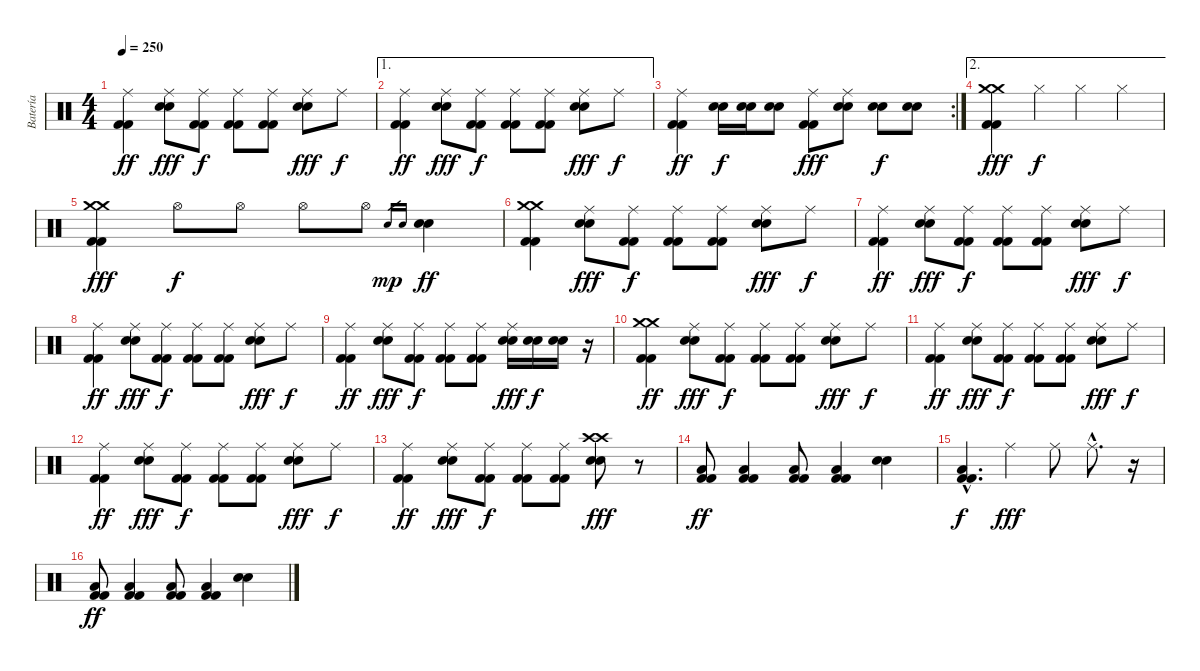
\track ("Batería" "Batería") {instrument percussion}
\staff {score}
\articulation defaults
\ts (4 4)
\tempo 250
\clef neutral
\ks c
("Ride (middle)" "Kick (hit) 2" "Kick (hit) 2").4{dy ff} ("Ride (middle)" "Electric Snare (hit)" "Electric Snare (hit)").8{dy fff} ("Ride (middle)" "Kick (hit) 2" "Kick (hit) 2").8{dy f} ("Ride (middle)" "Kick (hit) 2" "Kick (hit) 2").8 ("Ride (middle)" "Kick (hit) 2" "Kick (hit) 2").8 ("Ride (middle)" "Electric Snare (hit)" "Electric Snare (hit)").8{dy fff} "Ride (middle)".8{dy f} |
\ae 1
("Ride (middle)" "Kick (hit) 2" "Kick (hit) 2").4{dy ff} ("Ride (middle)" "Electric Snare (hit)" "Electric Snare (hit)").8{dy fff} ("Ride (middle)" "Kick (hit) 2" "Kick (hit) 2").8{dy f} ("Ride (middle)" "Kick (hit) 2" "Kick (hit) 2").8 ("Ride (middle)" "Kick (hit) 2" "Kick (hit) 2").8 ("Ride (middle)" "Electric Snare (hit)" "Electric Snare (hit)").8{dy fff} "Ride (middle)".8{dy f} |
\rc 2
("Ride (middle)" "Kick (hit) 2" "Kick (hit) 2").4{dy ff} ("Electric Snare (hit)" "Electric Snare (hit)").16{dy f} ("Electric Snare (hit)" "Electric Snare (hit)").16 ("Electric Snare (hit)" "Electric Snare (hit)").8 ("Ride (middle)" "Kick (hit) 2" "Kick (hit) 2").8{dy fff} ("Ride (middle)" "Electric Snare (hit)" "Electric Snare (hit)").8 ("Electric Snare (hit)" "Electric Snare (hit)").8{dy f} ("Electric Snare (hit)" "Electric Snare (hit)").8 |
\ae 2
("Crash medium (hit)" "Crash medium (hit)" "Kick (hit) 2" "Kick (hit) 2").4{dy fff} "Hi-Hat (closed)".4{dy f} "Hi-Hat (closed)".4 "Hi-Hat (closed)".4 |
("Crash medium (hit)" "Crash medium (hit)" "Kick (hit) 2" "Kick (hit) 2").4{dy fff} "Hi-Hat (open)".8{dy f} "Hi-Hat (open)".8 "Hi-Hat (open)".8 "Hi-Hat (open)".8 "Electric Snare (hit)".16{gr dy mp} "Electric Snare (hit)".16{gr} ("Electric Snare (hit)" "Electric Snare (hit)").4{dy ff} |
("Crash medium (hit)" "Crash medium (hit)" "Kick (hit) 2" "Kick (hit) 2").4 ("Ride (middle)" "Electric Snare (hit)" "Electric Snare (hit)").8{dy fff} ("Ride (middle)" "Kick (hit) 2" "Kick (hit) 2").8{dy f} ("Ride (middle)" "Kick (hit) 2" "Kick (hit) 2").8 ("Ride (middle)" "Kick (hit) 2" "Kick (hit) 2").8 ("Ride (middle)" "Electric Snare (hit)" "Electric Snare (hit)").8{dy fff} "Ride (middle)".8{dy f} |
("Ride (middle)" "Kick (hit) 2" "Kick (hit) 2").4{dy ff} ("Ride (middle)" "Electric Snare (hit)" "Electric Snare (hit)").8{dy fff} ("Ride (middle)" "Kick (hit) 2" "Kick (hit) 2").8{dy f} ("Ride (middle)" "Kick (hit) 2" "Kick (hit) 2").8 ("Ride (middle)" "Kick (hit) 2" "Kick (hit) 2").8 ("Ride (middle)" "Electric Snare (hit)" "Electric Snare (hit)").8{dy fff} "Ride (middle)".8{dy f} |
("Ride (middle)" "Kick (hit) 2" "Kick (hit) 2").4{dy ff} ("Ride (middle)" "Electric Snare (hit)" "Electric Snare (hit)").8{dy fff} ("Ride (middle)" "Kick (hit) 2" "Kick (hit) 2").8{dy f} ("Ride (middle)" "Kick (hit) 2" "Kick (hit) 2").8 ("Ride (middle)" "Kick (hit) 2" "Kick (hit) 2").8 ("Ride (middle)" "Electric Snare (hit)" "Electric Snare (hit)").8{dy fff} "Ride (middle)".8{dy f} |
("Ride (middle)" "Kick (hit) 2" "Kick (hit) 2").4{dy ff} ("Ride (middle)" "Electric Snare (hit)" "Electric Snare (hit)").8{dy fff} ("Ride (middle)" "Kick (hit) 2" "Kick (hit) 2").8{dy f} ("Ride (middle)" "Kick (hit) 2" "Kick (hit) 2").8 ("Ride (middle)" "Kick (hit) 2" "Kick (hit) 2").8 ("Ride (middle)" "Electric Snare (hit)" "Electric Snare (hit)").16{dy fff} ("Electric Snare (hit)" "Electric Snare (hit)").16{dy f} ("Electric Snare (hit)" "Electric Snare (hit)").16 r.16 |
("Crash medium (hit)" "Crash medium (hit)" "Kick (hit) 2" "Kick (hit) 2").4{dy ff} ("Ride (middle)" "Electric Snare (hit)" "Electric Snare (hit)").8{dy fff} ("Ride (middle)" "Kick (hit) 2" "Kick (hit) 2").8{dy f} ("Ride (middle)" "Kick (hit) 2" "Kick (hit) 2").8 ("Ride (middle)" "Kick (hit) 2" "Kick (hit) 2").8 ("Ride (middle)" "Electric Snare (hit)" "Electric Snare (hit)").8{dy fff} "Ride (middle)".8{dy f} |
("Ride (middle)" "Kick (hit) 2" "Kick (hit) 2").4{dy ff} ("Ride (middle)" "Electric Snare (hit)" "Electric Snare (hit)").8{dy fff} ("Ride (middle)" "Kick (hit) 2" "Kick (hit) 2").8{dy f} ("Ride (middle)" "Kick (hit) 2" "Kick (hit) 2").8 ("Ride (middle)" "Kick (hit) 2" "Kick (hit) 2").8 ("Ride (middle)" "Electric Snare (hit)" "Electric Snare (hit)").8{dy fff} "Ride (middle)".8{dy f} |
("Ride (middle)" "Kick (hit) 2" "Kick (hit) 2").4{dy ff} ("Ride (middle)" "Electric Snare (hit)" "Electric Snare (hit)").8{dy fff} ("Ride (middle)" "Kick (hit) 2" "Kick (hit) 2").8{dy f} ("Ride (middle)" "Kick (hit) 2" "Kick (hit) 2").8 ("Ride (middle)" "Kick (hit) 2" "Kick (hit) 2").8 ("Ride (middle)" "Electric Snare (hit)" "Electric Snare (hit)").8{dy fff} "Ride (middle)".8{dy f} |
("Ride (middle)" "Kick (hit) 2" "Kick (hit) 2").4{dy ff} ("Ride (middle)" "Electric Snare (hit)" "Electric Snare (hit)").8{dy fff} ("Ride (middle)" "Kick (hit) 2" "Kick (hit) 2").8{dy f} ("Ride (middle)" "Kick (hit) 2" "Kick (hit) 2").8 ("Ride (middle)" "Kick (hit) 2" "Kick (hit) 2").8 ("Crash high (hit)" "Crash high (hit)" "Electric Snare (hit)" "Electric Snare (hit)").8{dy fff} r.8 |
("Low Tom (hit)" "Kick (hit) 2" "Kick (hit) 2").8{dy ff} ("Low Tom (hit)" "Kick (hit) 2" "Kick (hit) 2").4 ("Low Tom (hit)" "Kick (hit) 2" "Kick (hit) 2").8 ("Low Tom (hit)" "Kick (hit) 2" "Kick (hit) 2").4 ("Electric Snare (hit)" "Electric Snare (hit)").4 |
("Low Tom (hit)"{hac} "Kick (hit) 2"{hac} "Kick (hit) 2"{hac}).4{d dy f} "Ride (middle)".4{dy fff} "Ride (middle)".8 "Ride (middle)"{hac}.8{d} r.16 |
("Low Tom (hit)" "Kick (hit) 2" "Kick (hit) 2").8{dy ff} ("Low Tom (hit)" "Kick (hit) 2" "Kick (hit) 2").4 ("Low Tom (hit)" "Kick (hit) 2" "Kick (hit) 2").8 ("Low Tom (hit)" "Kick (hit) 2" "Kick (hit) 2").4 ("Electric Snare (hit)" "Electric Snare (hit)").4
